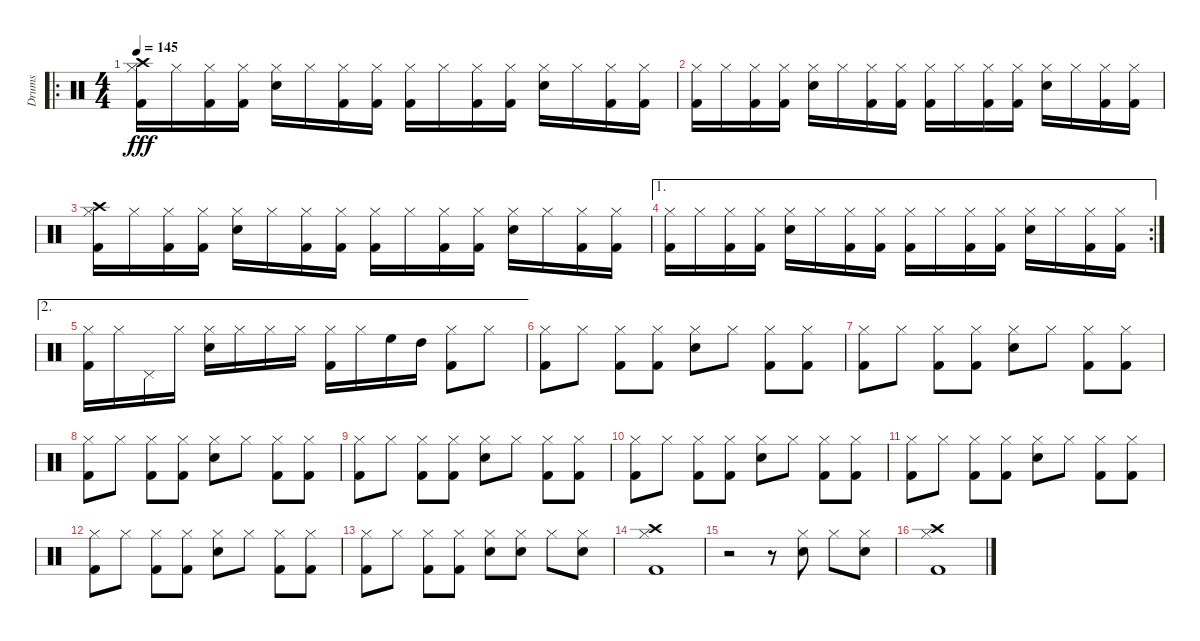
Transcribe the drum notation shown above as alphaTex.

\track ("Drums" "Drums") {instrument percussion}
\staff {score}
\articulation defaults
\ro
\ts (4 4)
\tempo 145
\clef neutral
\ks c
("Hi-Hat (closed)" "Kick (hit) 2" "Crash high (hit)").16{dy fff} "Hi-Hat (closed)".16 ("Kick (hit) 2" "Hi-Hat (closed)").16 ("Kick (hit) 2" "Hi-Hat (closed)").16 ("Hi-Hat (closed)" "Snare (hit) 2").16 "Hi-Hat (closed)".16 ("Kick (hit) 2" "Hi-Hat (closed)").16 ("Kick (hit) 2" "Hi-Hat (closed)").16 ("Hi-Hat (closed)" "Kick (hit) 2").16 "Hi-Hat (closed)".16 ("Kick (hit) 2" "Hi-Hat (closed)").16 ("Kick (hit) 2" "Hi-Hat (closed)").16 ("Hi-Hat (closed)" "Snare (hit) 2").16 "Hi-Hat (closed)".16 ("Kick (hit) 2" "Hi-Hat (closed)").16 ("Kick (hit) 2" "Hi-Hat (closed)").16 |
("Hi-Hat (closed)" "Kick (hit) 2").16 "Hi-Hat (closed)".16 ("Hi-Hat (closed)" "Kick (hit) 2").16 ("Hi-Hat (closed)" "Kick (hit) 2").16 ("Hi-Hat (closed)" "Snare (hit) 2").16 "Hi-Hat (closed)".16 ("Hi-Hat (closed)" "Kick (hit) 2").16 ("Hi-Hat (closed)" "Kick (hit) 2").16 ("Hi-Hat (closed)" "Kick (hit) 2").16 "Hi-Hat (closed)".16 ("Hi-Hat (closed)" "Kick (hit) 2").16 ("Hi-Hat (closed)" "Kick (hit) 2").16 ("Hi-Hat (closed)" "Snare (hit) 2").16 "Hi-Hat (closed)".16 ("Hi-Hat (closed)" "Kick (hit) 2").16 ("Hi-Hat (closed)" "Kick (hit) 2").16 |
("Hi-Hat (closed)" "Kick (hit) 2" "Crash high (hit)").16 "Hi-Hat (closed)".16 ("Hi-Hat (closed)" "Kick (hit) 2").16 ("Hi-Hat (closed)" "Kick (hit) 2").16 ("Hi-Hat (closed)" "Snare (hit) 2").16 "Hi-Hat (closed)".16 ("Hi-Hat (closed)" "Kick (hit) 2").16 ("Hi-Hat (closed)" "Kick (hit) 2").16 ("Hi-Hat (closed)" "Kick (hit) 2").16 "Hi-Hat (closed)".16 ("Hi-Hat (closed)" "Kick (hit) 2").16 ("Hi-Hat (closed)" "Kick (hit) 2").16 ("Hi-Hat (closed)" "Snare (hit) 2").16 "Hi-Hat (closed)".16 ("Hi-Hat (closed)" "Kick (hit) 2").16 ("Hi-Hat (closed)" "Kick (hit) 2").16 |
\ae 1
\rc 2
("Hi-Hat (closed)" "Kick (hit) 2").16 "Hi-Hat (closed)".16 ("Hi-Hat (closed)" "Kick (hit) 2").16 ("Hi-Hat (closed)" "Kick (hit) 2").16 ("Hi-Hat (closed)" "Snare (hit) 2").16 "Hi-Hat (closed)".16 ("Hi-Hat (closed)" "Kick (hit) 2").16 ("Hi-Hat (closed)" "Kick (hit) 2").16 ("Hi-Hat (closed)" "Kick (hit) 2").16 "Hi-Hat (closed)".16 ("Hi-Hat (closed)" "Kick (hit) 2").16 ("Hi-Hat (closed)" "Kick (hit) 2").16 ("Hi-Hat (closed)" "Snare (hit) 2").16 "Hi-Hat (closed)".16 ("Hi-Hat (closed)" "Kick (hit) 2").16 ("Hi-Hat (closed)" "Kick (hit) 2").16 |
\ae 2
("Hi-Hat (closed)" "Kick (hit) 2").16 "Hi-Hat (closed)".16 "Pedal Hi-Hat (hit)".16 "Hi-Hat (closed)".16 ("Hi-Hat (closed)" "Snare (hit) 2").16 "Hi-Hat (closed)".16 "Hi-Hat (closed)".16 "Hi-Hat (closed)".16 ("Hi-Hat (closed)" "Kick (hit) 2").16 "Hi-Hat (closed)".16 "High Floor Tom (hit)".16 "High Tom (hit)".16 ("Hi-Hat (closed)" "Kick (hit) 2").8 "Hi-Hat (closed)".8 |
("Hi-Hat (closed)" "Kick (hit) 2").8 "Hi-Hat (closed)".8 ("Hi-Hat (closed)" "Kick (hit) 2").8 ("Hi-Hat (closed)" "Kick (hit) 2").8 ("Hi-Hat (closed)" "Snare (hit) 2").8 "Hi-Hat (closed)".8 ("Hi-Hat (closed)" "Kick (hit) 2").8 ("Hi-Hat (closed)" "Kick (hit) 2").8 |
("Hi-Hat (closed)" "Kick (hit) 2").8 "Hi-Hat (closed)".8 ("Hi-Hat (closed)" "Kick (hit) 2").8 ("Hi-Hat (closed)" "Kick (hit) 2").8 ("Hi-Hat (closed)" "Snare (hit) 2").8 "Hi-Hat (closed)".8 ("Hi-Hat (closed)" "Kick (hit) 2").8 ("Hi-Hat (closed)" "Kick (hit) 2").8 |
("Hi-Hat (closed)" "Kick (hit) 2").8 "Hi-Hat (closed)".8 ("Hi-Hat (closed)" "Kick (hit) 2").8 ("Hi-Hat (closed)" "Kick (hit) 2").8 ("Hi-Hat (closed)" "Snare (hit) 2").8 "Hi-Hat (closed)".8 ("Hi-Hat (closed)" "Kick (hit) 2").8 ("Hi-Hat (closed)" "Kick (hit) 2").8 |
("Hi-Hat (closed)" "Kick (hit) 2").8 "Hi-Hat (closed)".8 ("Hi-Hat (closed)" "Kick (hit) 2").8 ("Hi-Hat (closed)" "Kick (hit) 2").8 ("Hi-Hat (closed)" "Snare (hit) 2").8 "Hi-Hat (closed)".8 ("Hi-Hat (closed)" "Kick (hit) 2").8 ("Hi-Hat (closed)" "Kick (hit) 2").8 |
("Hi-Hat (closed)" "Kick (hit) 2").8 "Hi-Hat (closed)".8 ("Hi-Hat (closed)" "Kick (hit) 2").8 ("Hi-Hat (closed)" "Kick (hit) 2").8 ("Hi-Hat (closed)" "Snare (hit) 2").8 "Hi-Hat (closed)".8 ("Hi-Hat (closed)" "Kick (hit) 2").8 ("Hi-Hat (closed)" "Kick (hit) 2").8 |
("Hi-Hat (closed)" "Kick (hit) 2").8 "Hi-Hat (closed)".8 ("Hi-Hat (closed)" "Kick (hit) 2").8 ("Hi-Hat (closed)" "Kick (hit) 2").8 ("Hi-Hat (closed)" "Snare (hit) 2").8 "Hi-Hat (closed)".8 ("Hi-Hat (closed)" "Kick (hit) 2").8 ("Hi-Hat (closed)" "Kick (hit) 2").8 |
("Hi-Hat (closed)" "Kick (hit) 2").8 "Hi-Hat (closed)".8 ("Hi-Hat (closed)" "Kick (hit) 2").8 ("Hi-Hat (closed)" "Kick (hit) 2").8 ("Hi-Hat (closed)" "Snare (hit) 2").8 "Hi-Hat (closed)".8 ("Hi-Hat (closed)" "Kick (hit) 2").8 ("Hi-Hat (closed)" "Kick (hit) 2").8 |
("Hi-Hat (closed)" "Kick (hit) 2").8 "Hi-Hat (closed)".8 ("Hi-Hat (closed)" "Kick (hit) 2").8 ("Hi-Hat (closed)" "Kick (hit) 2").8 ("Hi-Hat (closed)" "Snare (hit) 2").8 ("Hi-Hat (closed)" "Snare (hit) 2").8 "Hi-Hat (closed)".8 ("Hi-Hat (closed)" "Snare (hit) 2").8 |
("Hi-Hat (closed)" "Kick (hit) 2" "Crash high (hit)").1 |
r.2 r.8 ("Hi-Hat (closed)" "Snare (hit) 2").8 "Hi-Hat (closed)".8 ("Hi-Hat (closed)" "Snare (hit) 2").8 |
("Hi-Hat (closed)" "Kick (hit) 2" "Crash high (hit)").1
